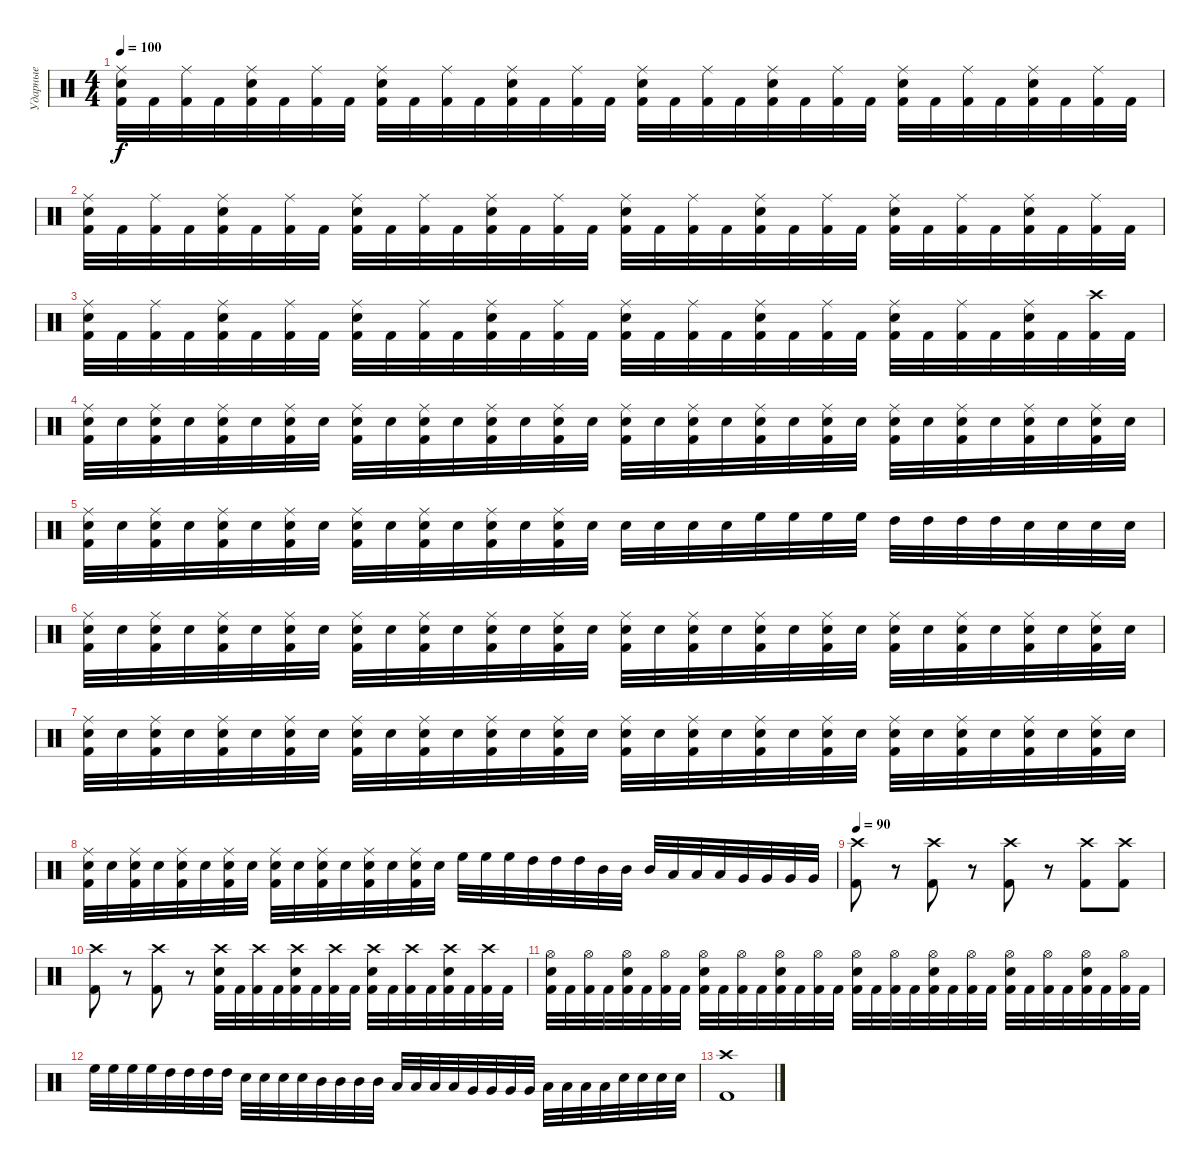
\track ("Ударные" "Ударные") {instrument percussion}
\staff {score}
\articulation defaults
\ts (4 4)
\tempo 100
\clef neutral
\ks c
("Kick (hit) 2" "Snare (hit) 2" "Ride (middle)").32{dy f} "Kick (hit) 2".32 ("Kick (hit) 2" "Ride (middle)").32 "Kick (hit) 2".32 ("Kick (hit) 2" "Snare (hit) 2" "Ride (middle)").32 "Kick (hit) 2".32 ("Kick (hit) 2" "Ride (middle)").32 "Kick (hit) 2".32 ("Kick (hit) 2" "Snare (hit) 2" "Ride (middle)").32 "Kick (hit) 2".32 ("Kick (hit) 2" "Ride (middle)").32 "Kick (hit) 2".32 ("Kick (hit) 2" "Snare (hit) 2" "Ride (middle)").32 "Kick (hit) 2".32 ("Kick (hit) 2" "Ride (middle)").32 "Kick (hit) 2".32 ("Kick (hit) 2" "Snare (hit) 2" "Ride (middle)").32 "Kick (hit) 2".32 ("Kick (hit) 2" "Ride (middle)").32 "Kick (hit) 2".32 ("Kick (hit) 2" "Snare (hit) 2" "Ride (middle)").32 "Kick (hit) 2".32 ("Kick (hit) 2" "Ride (middle)").32 "Kick (hit) 2".32 ("Kick (hit) 2" "Snare (hit) 2" "Ride (middle)").32 "Kick (hit) 2".32 ("Kick (hit) 2" "Ride (middle)").32 "Kick (hit) 2".32 ("Kick (hit) 2" "Snare (hit) 2" "Ride (middle)").32 "Kick (hit) 2".32 ("Kick (hit) 2" "Ride (middle)").32 "Kick (hit) 2".32 |
("Kick (hit) 2" "Snare (hit) 2" "Ride (middle)").32 "Kick (hit) 2".32 ("Kick (hit) 2" "Ride (middle)").32 "Kick (hit) 2".32 ("Kick (hit) 2" "Snare (hit) 2" "Ride (middle)").32 "Kick (hit) 2".32 ("Kick (hit) 2" "Ride (middle)").32 "Kick (hit) 2".32 ("Kick (hit) 2" "Snare (hit) 2" "Ride (middle)").32 "Kick (hit) 2".32 ("Kick (hit) 2" "Ride (middle)").32 "Kick (hit) 2".32 ("Kick (hit) 2" "Snare (hit) 2" "Ride (middle)").32 "Kick (hit) 2".32 ("Kick (hit) 2" "Ride (middle)").32 "Kick (hit) 2".32 ("Kick (hit) 2" "Snare (hit) 2" "Ride (middle)").32 "Kick (hit) 2".32 ("Kick (hit) 2" "Ride (middle)").32 "Kick (hit) 2".32 ("Kick (hit) 2" "Snare (hit) 2" "Ride (middle)").32 "Kick (hit) 2".32 ("Kick (hit) 2" "Ride (middle)").32 "Kick (hit) 2".32 ("Kick (hit) 2" "Snare (hit) 2" "Ride (middle)").32 "Kick (hit) 2".32 ("Kick (hit) 2" "Ride (middle)").32 "Kick (hit) 2".32 ("Kick (hit) 2" "Snare (hit) 2" "Ride (middle)").32 "Kick (hit) 2".32 ("Kick (hit) 2" "Ride (middle)").32 "Kick (hit) 2".32 |
("Kick (hit) 2" "Snare (hit) 2" "Ride (middle)").32 "Kick (hit) 2".32 ("Kick (hit) 2" "Ride (middle)").32 "Kick (hit) 2".32 ("Kick (hit) 2" "Snare (hit) 2" "Ride (middle)").32 "Kick (hit) 2".32 ("Kick (hit) 2" "Ride (middle)").32 "Kick (hit) 2".32 ("Kick (hit) 2" "Snare (hit) 2" "Ride (middle)").32 "Kick (hit) 2".32 ("Kick (hit) 2" "Ride (middle)").32 "Kick (hit) 2".32 ("Kick (hit) 2" "Snare (hit) 2" "Ride (middle)").32 "Kick (hit) 2".32 ("Kick (hit) 2" "Ride (middle)").32 "Kick (hit) 2".32 ("Kick (hit) 2" "Snare (hit) 2" "Ride (middle)").32 "Kick (hit) 2".32 ("Kick (hit) 2" "Ride (middle)").32 "Kick (hit) 2".32 ("Kick (hit) 2" "Snare (hit) 2" "Ride (middle)").32 "Kick (hit) 2".32 ("Kick (hit) 2" "Ride (middle)").32 "Kick (hit) 2".32 ("Kick (hit) 2" "Snare (hit) 2" "Ride (middle)").32 "Kick (hit) 2".32 ("Kick (hit) 2" "Ride (middle)").32 "Kick (hit) 2".32 ("Kick (hit) 2" "Snare (hit) 2" "Ride (middle)").32 "Kick (hit) 2".32 ("Kick (hit) 2" "Crash high (hit)").32 "Kick (hit) 2".32 |
("Snare (hit) 2" "Kick (hit) 2" "Ride (middle)").32 "Snare (hit) 2".32 ("Snare (hit) 2" "Kick (hit) 2" "Ride (middle)").32 "Snare (hit) 2".32 ("Snare (hit) 2" "Kick (hit) 2" "Ride (middle)").32 "Snare (hit) 2".32 ("Snare (hit) 2" "Kick (hit) 2" "Ride (middle)").32 "Snare (hit) 2".32 ("Snare (hit) 2" "Kick (hit) 2" "Ride (middle)").32 "Snare (hit) 2".32 ("Snare (hit) 2" "Kick (hit) 2" "Ride (middle)").32 "Snare (hit) 2".32 ("Snare (hit) 2" "Kick (hit) 2" "Ride (middle)").32 "Snare (hit) 2".32 ("Snare (hit) 2" "Kick (hit) 2" "Ride (middle)").32 "Snare (hit) 2".32 ("Snare (hit) 2" "Kick (hit) 2" "Ride (middle)").32 "Snare (hit) 2".32 ("Snare (hit) 2" "Kick (hit) 2" "Ride (middle)").32 "Snare (hit) 2".32 ("Snare (hit) 2" "Kick (hit) 2" "Ride (middle)").32 "Snare (hit) 2".32 ("Snare (hit) 2" "Kick (hit) 2" "Ride (middle)").32 "Snare (hit) 2".32 ("Snare (hit) 2" "Kick (hit) 2" "Ride (middle)").32 "Snare (hit) 2".32 ("Snare (hit) 2" "Kick (hit) 2" "Ride (middle)").32 "Snare (hit) 2".32 ("Snare (hit) 2" "Kick (hit) 2" "Ride (middle)").32 "Snare (hit) 2".32 ("Snare (hit) 2" "Kick (hit) 2" "Ride (middle)").32 "Snare (hit) 2".32 |
("Snare (hit) 2" "Kick (hit) 2" "Ride (middle)").32 "Snare (hit) 2".32 ("Snare (hit) 2" "Kick (hit) 2" "Ride (middle)").32 "Snare (hit) 2".32 ("Snare (hit) 2" "Kick (hit) 2" "Ride (middle)").32 "Snare (hit) 2".32 ("Snare (hit) 2" "Kick (hit) 2" "Ride (middle)").32 "Snare (hit) 2".32 ("Snare (hit) 2" "Kick (hit) 2" "Ride (middle)").32 "Snare (hit) 2".32 ("Snare (hit) 2" "Kick (hit) 2" "Ride (middle)").32 "Snare (hit) 2".32 ("Snare (hit) 2" "Kick (hit) 2" "Ride (middle)").32 "Snare (hit) 2".32 ("Snare (hit) 2" "Kick (hit) 2" "Ride (middle)").32 "Snare (hit) 2".32 "Snare (hit) 2".32 "Snare (hit) 2".32 "Snare (hit) 2".32 "Snare (hit) 2".32 "High Floor Tom (hit)".32 "High Floor Tom (hit)".32 "High Floor Tom (hit)".32 "High Floor Tom (hit)".32 "High Tom (hit)".32 "High Tom (hit)".32 "High Tom (hit)".32 "High Tom (hit)".32 "Snare (hit) 2".32 "Snare (hit) 2".32 "Snare (hit) 2".32 "Snare (hit) 2".32 |
("Snare (hit) 2" "Kick (hit) 2" "Ride (middle)").32 "Snare (hit) 2".32 ("Snare (hit) 2" "Kick (hit) 2" "Ride (middle)").32 "Snare (hit) 2".32 ("Snare (hit) 2" "Kick (hit) 2" "Ride (middle)").32 "Snare (hit) 2".32 ("Snare (hit) 2" "Kick (hit) 2" "Ride (middle)").32 "Snare (hit) 2".32 ("Snare (hit) 2" "Kick (hit) 2" "Ride (middle)").32 "Snare (hit) 2".32 ("Snare (hit) 2" "Kick (hit) 2" "Ride (middle)").32 "Snare (hit) 2".32 ("Snare (hit) 2" "Kick (hit) 2" "Ride (middle)").32 "Snare (hit) 2".32 ("Snare (hit) 2" "Kick (hit) 2" "Ride (middle)").32 "Snare (hit) 2".32 ("Snare (hit) 2" "Kick (hit) 2" "Ride (middle)").32 "Snare (hit) 2".32 ("Snare (hit) 2" "Kick (hit) 2" "Ride (middle)").32 "Snare (hit) 2".32 ("Snare (hit) 2" "Kick (hit) 2" "Ride (middle)").32 "Snare (hit) 2".32 ("Snare (hit) 2" "Kick (hit) 2" "Ride (middle)").32 "Snare (hit) 2".32 ("Snare (hit) 2" "Kick (hit) 2" "Ride (middle)").32 "Snare (hit) 2".32 ("Snare (hit) 2" "Kick (hit) 2" "Ride (middle)").32 "Snare (hit) 2".32 ("Snare (hit) 2" "Kick (hit) 2" "Ride (middle)").32 "Snare (hit) 2".32 ("Snare (hit) 2" "Kick (hit) 2" "Ride (middle)").32 "Snare (hit) 2".32 |
("Snare (hit) 2" "Kick (hit) 2" "Ride (middle)").32 "Snare (hit) 2".32 ("Snare (hit) 2" "Kick (hit) 2" "Ride (middle)").32 "Snare (hit) 2".32 ("Snare (hit) 2" "Kick (hit) 2" "Ride (middle)").32 "Snare (hit) 2".32 ("Snare (hit) 2" "Kick (hit) 2" "Ride (middle)").32 "Snare (hit) 2".32 ("Snare (hit) 2" "Kick (hit) 2" "Ride (middle)").32 "Snare (hit) 2".32 ("Snare (hit) 2" "Kick (hit) 2" "Ride (middle)").32 "Snare (hit) 2".32 ("Snare (hit) 2" "Kick (hit) 2" "Ride (middle)").32 "Snare (hit) 2".32 ("Snare (hit) 2" "Kick (hit) 2" "Ride (middle)").32 "Snare (hit) 2".32 ("Snare (hit) 2" "Kick (hit) 2" "Ride (middle)").32 "Snare (hit) 2".32 ("Snare (hit) 2" "Kick (hit) 2" "Ride (middle)").32 "Snare (hit) 2".32 ("Snare (hit) 2" "Kick (hit) 2" "Ride (middle)").32 "Snare (hit) 2".32 ("Snare (hit) 2" "Kick (hit) 2" "Ride (middle)").32 "Snare (hit) 2".32 ("Snare (hit) 2" "Kick (hit) 2" "Ride (middle)").32 "Snare (hit) 2".32 ("Snare (hit) 2" "Kick (hit) 2" "Ride (middle)").32 "Snare (hit) 2".32 ("Snare (hit) 2" "Kick (hit) 2" "Ride (middle)").32 "Snare (hit) 2".32 ("Snare (hit) 2" "Kick (hit) 2" "Ride (middle)").32 "Snare (hit) 2".32 |
("Snare (hit) 2" "Kick (hit) 2" "Ride (middle)").32 "Snare (hit) 2".32 ("Snare (hit) 2" "Kick (hit) 2" "Ride (middle)").32 "Snare (hit) 2".32 ("Snare (hit) 2" "Kick (hit) 2" "Ride (middle)").32 "Snare (hit) 2".32 ("Snare (hit) 2" "Kick (hit) 2" "Ride (middle)").32 "Snare (hit) 2".32 ("Snare (hit) 2" "Kick (hit) 2" "Ride (middle)").32 "Snare (hit) 2".32 ("Snare (hit) 2" "Kick (hit) 2" "Ride (middle)").32 "Snare (hit) 2".32 ("Snare (hit) 2" "Kick (hit) 2" "Ride (middle)").32 "Snare (hit) 2".32 ("Snare (hit) 2" "Kick (hit) 2" "Ride (middle)").32 "Snare (hit) 2".32 "High Floor Tom (hit)".32 "High Floor Tom (hit)".32 "High Floor Tom (hit)".32 "High Tom (hit)".32 "High Tom (hit)".32 "High Tom (hit)".32 "Mid Tom (hit)".32 "Mid Tom (hit)".32 "Mid Tom (hit)".32 "Low Tom (hit)".32 "Low Tom (hit)".32 "Low Tom (hit)".32 "Very Low Tom (hit)".32 "Very Low Tom (hit)".32 "Very Low Tom (hit)".32 "Very Low Tom (hit)".32 |
\tempo 90
("Crash high (hit)" "Kick (hit) 2").8 r.8 ("Kick (hit) 2" "Crash high (hit)").8 r.8 ("Kick (hit) 2" "Crash high (hit)").8 r.8 ("Kick (hit) 2" "Crash high (hit)").8 ("Kick (hit) 2" "Crash high (hit)").8 |
("Kick (hit) 2" "Crash high (hit)").8 r.8 ("Kick (hit) 2" "Crash high (hit)").8 r.8 ("Kick (hit) 2" "Snare (hit) 2" "Crash high (hit)").32 "Kick (hit) 2".32 ("Kick (hit) 2" "Crash high (hit)").32 "Kick (hit) 2".32 ("Kick (hit) 2" "Snare (hit) 2" "Crash high (hit)").32 "Kick (hit) 2".32 ("Kick (hit) 2" "Crash high (hit)").32 "Kick (hit) 2".32 ("Kick (hit) 2" "Snare (hit) 2" "Crash high (hit)").32 "Kick (hit) 2".32 ("Kick (hit) 2" "Crash high (hit)").32 "Kick (hit) 2".32 ("Kick (hit) 2" "Snare (hit) 2" "Crash high (hit)").32 "Kick (hit) 2".32 ("Kick (hit) 2" "Crash high (hit)").32 "Kick (hit) 2".32 |
("Kick (hit) 2" "Snare (hit) 2" "Hi-Hat (open)").32 "Kick (hit) 2".32 ("Kick (hit) 2" "Hi-Hat (open)").32 "Kick (hit) 2".32 ("Kick (hit) 2" "Snare (hit) 2" "Hi-Hat (open)").32 "Kick (hit) 2".32 ("Kick (hit) 2" "Hi-Hat (open)").32 "Kick (hit) 2".32 ("Kick (hit) 2" "Snare (hit) 2" "Hi-Hat (open)").32 "Kick (hit) 2".32 ("Kick (hit) 2" "Hi-Hat (open)").32 "Kick (hit) 2".32 ("Kick (hit) 2" "Snare (hit) 2" "Hi-Hat (open)").32 "Kick (hit) 2".32 ("Kick (hit) 2" "Hi-Hat (open)").32 "Kick (hit) 2".32 ("Kick (hit) 2" "Snare (hit) 2" "Hi-Hat (open)").32 "Kick (hit) 2".32 ("Kick (hit) 2" "Hi-Hat (open)").32 "Kick (hit) 2".32 ("Kick (hit) 2" "Snare (hit) 2" "Hi-Hat (open)").32 "Kick (hit) 2".32 ("Kick (hit) 2" "Hi-Hat (open)").32 "Kick (hit) 2".32 ("Kick (hit) 2" "Snare (hit) 2" "Hi-Hat (open)").32 "Kick (hit) 2".32 ("Kick (hit) 2" "Hi-Hat (open)").32 "Kick (hit) 2".32 ("Kick (hit) 2" "Snare (hit) 2" "Hi-Hat (open)").32 "Kick (hit) 2".32 ("Kick (hit) 2" "Hi-Hat (open)").32 "Kick (hit) 2".32 |
"High Floor Tom (hit)".32 "High Floor Tom (hit)".32 "High Floor Tom (hit)".32 "High Floor Tom (hit)".32 "High Tom (hit)".32 "High Tom (hit)".32 "High Tom (hit)".32 "High Tom (hit)".32 "Snare (hit) 2".32 "Snare (hit) 2".32 "Snare (hit) 2".32 "Snare (hit) 2".32 "Mid Tom (hit)".32 "Mid Tom (hit)".32 "Mid Tom (hit)".32 "Mid Tom (hit)".32 "Low Tom (hit)".32 "Low Tom (hit)".32 "Low Tom (hit)".32 "Low Tom (hit)".32 "Very Low Tom (hit)".32 "Very Low Tom (hit)".32 "Very Low Tom (hit)".32 "Very Low Tom (hit)".32 "Low Floor Tom (hit)".32 "Low Floor Tom (hit)".32 "Low Floor Tom (hit)".32 "Low Floor Tom (hit)".32 "Snare (hit) 2".32 "Snare (hit) 2".32 "Snare (hit) 2".32 "Snare (hit) 2".32 |
("Kick (hit) 2" "Crash high (hit)").1
